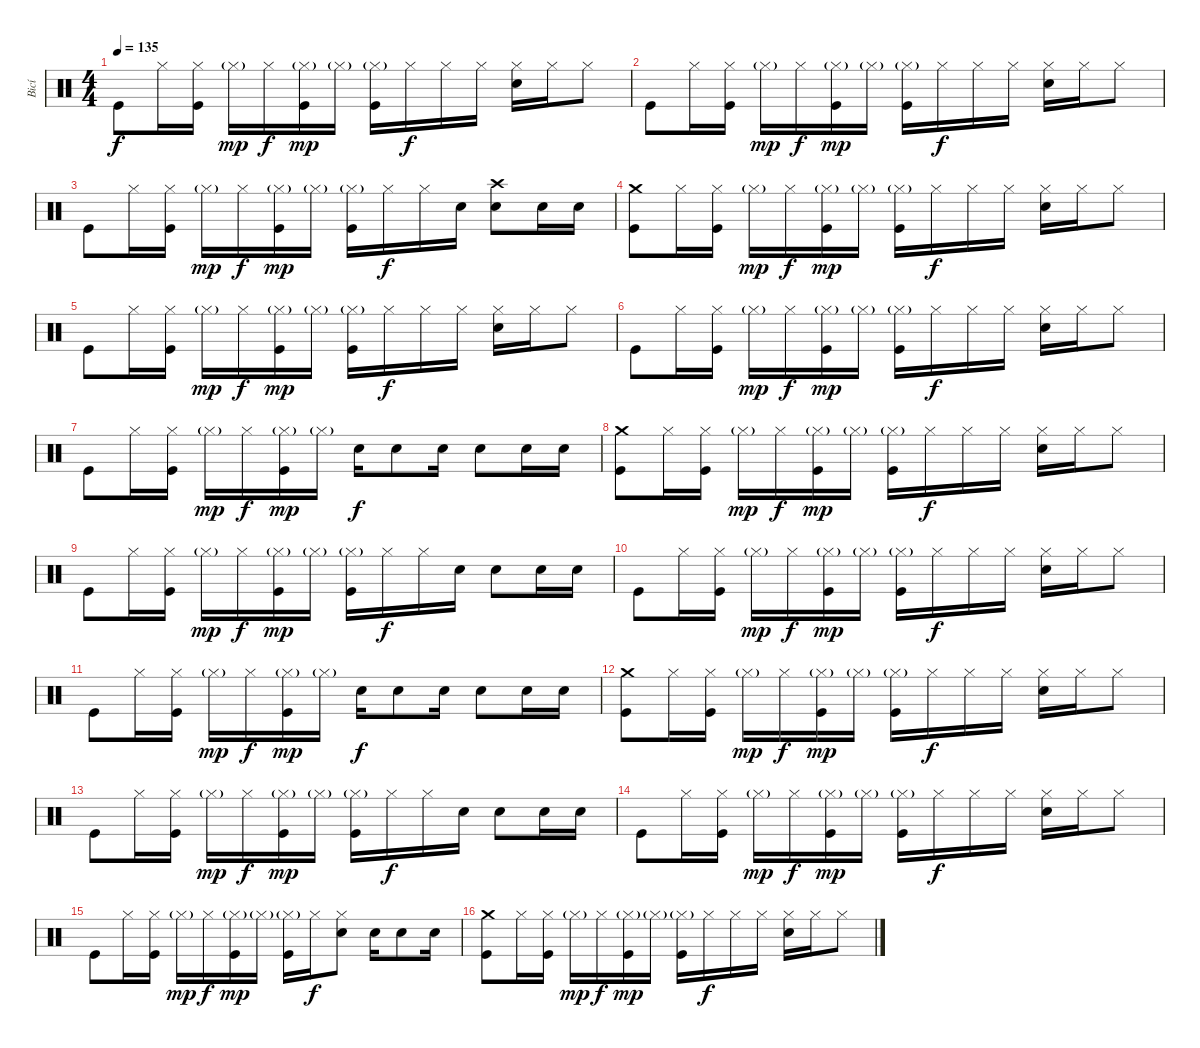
\track ("Bicí" "Bicí") {instrument percussion}
\staff {score}
\articulation defaults
\ts (4 4)
\tempo 135
\clef neutral
\ks c "Kick (hit)".8{dy f} "Hi-Hat (closed)".16
("Hi-Hat (closed)" "Kick (hit)").16 "Hi-Hat (closed)"{g}.16{dy mp} "Hi-Hat (closed)".16{dy f} ("Hi-Hat (closed)"{g} "Kick (hit)").16{dy mp} "Hi-Hat (closed)"{g}.16 ("Hi-Hat (closed)"{g} "Kick (hit)").16 "Hi-Hat (closed)".16{dy f} "Hi-Hat (closed)".16 "Hi-Hat (closed)".16 ("Hi-Hat (closed)" "Electric Snare (hit)").16 "Hi-Hat (closed)".16 "Hi-Hat (closed)".8 |
"Kick (hit)".8 "Hi-Hat (closed)".16 ("Hi-Hat (closed)" "Kick (hit)").16 "Hi-Hat (closed)"{g}.16{dy mp} "Hi-Hat (closed)".16{dy f} ("Hi-Hat (closed)"{g} "Kick (hit)").16{dy mp} "Hi-Hat (closed)"{g}.16 ("Hi-Hat (closed)"{g} "Kick (hit)").16 "Hi-Hat (closed)".16{dy f} "Hi-Hat (closed)".16 "Hi-Hat (closed)".16 ("Hi-Hat (closed)" "Electric Snare (hit)").16 "Hi-Hat (closed)".16 "Hi-Hat (closed)".8 |
"Kick (hit)".8 "Hi-Hat (closed)".16 ("Hi-Hat (closed)" "Kick (hit)").16 "Hi-Hat (closed)"{g}.16{dy mp} "Hi-Hat (closed)".16{dy f} ("Hi-Hat (closed)"{g} "Kick (hit)").16{dy mp} "Hi-Hat (closed)"{g}.16 ("Hi-Hat (closed)"{g} "Kick (hit)").16 "Hi-Hat (closed)".16{dy f} "Hi-Hat (closed)".16 "Electric Snare (hit)".16 ("Crash high (hit)" "Electric Snare (hit)").8 "Electric Snare (hit)".16 "Electric Snare (hit)".16 |
("Crash medium (hit)" "Kick (hit)").8 "Hi-Hat (closed)".16 ("Hi-Hat (closed)" "Kick (hit)").16 "Hi-Hat (closed)"{g}.16{dy mp} "Hi-Hat (closed)".16{dy f} ("Hi-Hat (closed)"{g} "Kick (hit)").16{dy mp} "Hi-Hat (closed)"{g}.16 ("Hi-Hat (closed)"{g} "Kick (hit)").16 "Hi-Hat (closed)".16{dy f} "Hi-Hat (closed)".16 "Hi-Hat (closed)".16 ("Hi-Hat (closed)" "Electric Snare (hit)").16 "Hi-Hat (closed)".16 "Hi-Hat (closed)".8 |
"Kick (hit)".8 "Hi-Hat (closed)".16 ("Hi-Hat (closed)" "Kick (hit)").16 "Hi-Hat (closed)"{g}.16{dy mp} "Hi-Hat (closed)".16{dy f} ("Hi-Hat (closed)"{g} "Kick (hit)").16{dy mp} "Hi-Hat (closed)"{g}.16 ("Hi-Hat (closed)"{g} "Kick (hit)").16 "Hi-Hat (closed)".16{dy f} "Hi-Hat (closed)".16 "Hi-Hat (closed)".16 ("Hi-Hat (closed)" "Electric Snare (hit)").16 "Hi-Hat (closed)".16 "Hi-Hat (closed)".8 |
"Kick (hit)".8 "Hi-Hat (closed)".16 ("Hi-Hat (closed)" "Kick (hit)").16 "Hi-Hat (closed)"{g}.16{dy mp} "Hi-Hat (closed)".16{dy f} ("Hi-Hat (closed)"{g} "Kick (hit)").16{dy mp} "Hi-Hat (closed)"{g}.16 ("Hi-Hat (closed)"{g} "Kick (hit)").16 "Hi-Hat (closed)".16{dy f} "Hi-Hat (closed)".16 "Hi-Hat (closed)".16 ("Hi-Hat (closed)" "Electric Snare (hit)").16 "Hi-Hat (closed)".16 "Hi-Hat (closed)".8 |
"Kick (hit)".8 "Hi-Hat (closed)".16 ("Hi-Hat (closed)" "Kick (hit)").16 "Hi-Hat (closed)"{g}.16{dy mp} "Hi-Hat (closed)".16{dy f} ("Hi-Hat (closed)"{g} "Kick (hit)").16{dy mp} "Hi-Hat (closed)"{g}.16 "Electric Snare (hit)".16{dy f} "Electric Snare (hit)".8 "Electric Snare (hit)".16 "Electric Snare (hit)".8 "Electric Snare (hit)".16 "Electric Snare (hit)".16 |
("Crash medium (hit)" "Kick (hit)").8 "Hi-Hat (closed)".16 ("Hi-Hat (closed)" "Kick (hit)").16 "Hi-Hat (closed)"{g}.16{dy mp} "Hi-Hat (closed)".16{dy f} ("Hi-Hat (closed)"{g} "Kick (hit)").16{dy mp} "Hi-Hat (closed)"{g}.16 ("Hi-Hat (closed)"{g} "Kick (hit)").16 "Hi-Hat (closed)".16{dy f} "Hi-Hat (closed)".16 "Hi-Hat (closed)".16 ("Hi-Hat (closed)" "Electric Snare (hit)").16 "Hi-Hat (closed)".16 "Hi-Hat (closed)".8 |
"Kick (hit)".8 "Hi-Hat (closed)".16 ("Hi-Hat (closed)" "Kick (hit)").16 "Hi-Hat (closed)"{g}.16{dy mp} "Hi-Hat (closed)".16{dy f} ("Hi-Hat (closed)"{g} "Kick (hit)").16{dy mp} "Hi-Hat (closed)"{g}.16 ("Hi-Hat (closed)"{g} "Kick (hit)").16 "Hi-Hat (closed)".16{dy f} "Hi-Hat (closed)".16 "Electric Snare (hit)".16 "Electric Snare (hit)".8 "Electric Snare (hit)".16 "Electric Snare (hit)".16 |
"Kick (hit)".8 "Hi-Hat (closed)".16 ("Hi-Hat (closed)" "Kick (hit)").16 "Hi-Hat (closed)"{g}.16{dy mp} "Hi-Hat (closed)".16{dy f} ("Hi-Hat (closed)"{g} "Kick (hit)").16{dy mp} "Hi-Hat (closed)"{g}.16 ("Hi-Hat (closed)"{g} "Kick (hit)").16 "Hi-Hat (closed)".16{dy f} "Hi-Hat (closed)".16 "Hi-Hat (closed)".16 ("Hi-Hat (closed)" "Electric Snare (hit)").16 "Hi-Hat (closed)".16 "Hi-Hat (closed)".8 |
"Kick (hit)".8 "Hi-Hat (closed)".16 ("Hi-Hat (closed)" "Kick (hit)").16 "Hi-Hat (closed)"{g}.16{dy mp} "Hi-Hat (closed)".16{dy f} ("Hi-Hat (closed)"{g} "Kick (hit)").16{dy mp} "Hi-Hat (closed)"{g}.16 "Electric Snare (hit)".16{dy f} "Electric Snare (hit)".8 "Electric Snare (hit)".16 "Electric Snare (hit)".8 "Electric Snare (hit)".16 "Electric Snare (hit)".16 |
("Crash medium (hit)" "Kick (hit)").8 "Hi-Hat (closed)".16 ("Hi-Hat (closed)" "Kick (hit)").16 "Hi-Hat (closed)"{g}.16{dy mp} "Hi-Hat (closed)".16{dy f} ("Hi-Hat (closed)"{g} "Kick (hit)").16{dy mp} "Hi-Hat (closed)"{g}.16 ("Hi-Hat (closed)"{g} "Kick (hit)").16 "Hi-Hat (closed)".16{dy f} "Hi-Hat (closed)".16 "Hi-Hat (closed)".16 ("Hi-Hat (closed)" "Electric Snare (hit)").16 "Hi-Hat (closed)".16 "Hi-Hat (closed)".8 |
"Kick (hit)".8 "Hi-Hat (closed)".16 ("Hi-Hat (closed)" "Kick (hit)").16 "Hi-Hat (closed)"{g}.16{dy mp} "Hi-Hat (closed)".16{dy f} ("Hi-Hat (closed)"{g} "Kick (hit)").16{dy mp} "Hi-Hat (closed)"{g}.16 ("Hi-Hat (closed)"{g} "Kick (hit)").16 "Hi-Hat (closed)".16{dy f} "Hi-Hat (closed)".16 "Electric Snare (hit)".16 "Electric Snare (hit)".8 "Electric Snare (hit)".16 "Electric Snare (hit)".16 |
"Kick (hit)".8 "Hi-Hat (closed)".16 ("Hi-Hat (closed)" "Kick (hit)").16 "Hi-Hat (closed)"{g}.16{dy mp} "Hi-Hat (closed)".16{dy f} ("Hi-Hat (closed)"{g} "Kick (hit)").16{dy mp} "Hi-Hat (closed)"{g}.16 ("Hi-Hat (closed)"{g} "Kick (hit)").16 "Hi-Hat (closed)".16{dy f} "Hi-Hat (closed)".16 "Hi-Hat (closed)".16 ("Hi-Hat (closed)" "Electric Snare (hit)").16 "Hi-Hat (closed)".16 "Hi-Hat (closed)".8 |
"Kick (hit)".8 "Hi-Hat (closed)".16 ("Hi-Hat (closed)" "Kick (hit)").16 "Hi-Hat (closed)"{g}.16{dy mp} "Hi-Hat (closed)".16{dy f} ("Hi-Hat (closed)"{g} "Kick (hit)").16{dy mp} "Hi-Hat (closed)"{g}.16 ("Hi-Hat (closed)"{g} "Kick (hit)").16 "Hi-Hat (closed)".16{dy f} ("Hi-Hat (closed)" "Electric Snare (hit)").8 "Electric Snare (hit)".16 "Electric Snare (hit)".8 "Electric Snare (hit)".16 |
("Crash medium (hit)" "Kick (hit)").8 "Hi-Hat (closed)".16 ("Hi-Hat (closed)" "Kick (hit)").16 "Hi-Hat (closed)"{g}.16{dy mp} "Hi-Hat (closed)".16{dy f} ("Hi-Hat (closed)"{g} "Kick (hit)").16{dy mp} "Hi-Hat (closed)"{g}.16 ("Hi-Hat (closed)"{g} "Kick (hit)").16 "Hi-Hat (closed)".16{dy f} "Hi-Hat (closed)".16 "Hi-Hat (closed)".16 ("Hi-Hat (closed)" "Electric Snare (hit)").16 "Hi-Hat (closed)".16 "Hi-Hat (closed)".8
